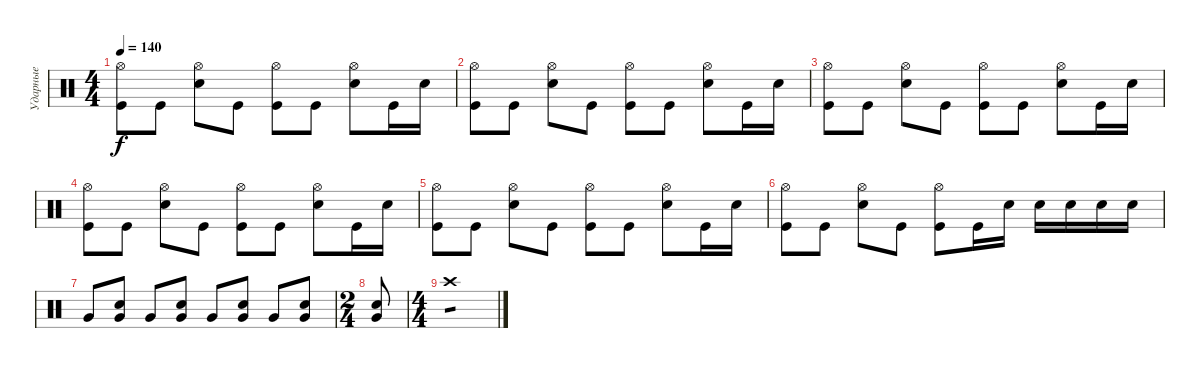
\track ("Ударные" "Ударные") {instrument percussion}
\staff {score}
\articulation defaults
\ts (4 4)
\tempo 140
\clef neutral
\ks c
("Hi-Hat (open)" "Kick (hit)").8{dy f} "Kick (hit)".8 ("Hi-Hat (open)" "Snare (hit) 2").8 "Kick (hit)".8 ("Hi-Hat (open)" "Kick (hit)").8 "Kick (hit)".8 ("Hi-Hat (open)" "Snare (hit) 2").8 "Kick (hit)".16 "Snare (hit) 2".16 |
("Hi-Hat (open)" "Kick (hit)").8 "Kick (hit)".8 ("Hi-Hat (open)" "Snare (hit) 2").8 "Kick (hit)".8 ("Hi-Hat (open)" "Kick (hit)").8 "Kick (hit)".8 ("Hi-Hat (open)" "Snare (hit) 2").8 "Kick (hit)".16 "Snare (hit) 2".16 |
("Hi-Hat (open)" "Kick (hit)").8 "Kick (hit)".8 ("Hi-Hat (open)" "Snare (hit) 2").8 "Kick (hit)".8 ("Hi-Hat (open)" "Kick (hit)").8 "Kick (hit)".8 ("Hi-Hat (open)" "Snare (hit) 2").8 "Kick (hit)".16 "Snare (hit) 2".16 |
("Hi-Hat (open)" "Kick (hit)").8 "Kick (hit)".8 ("Hi-Hat (open)" "Snare (hit) 2").8 "Kick (hit)".8 ("Hi-Hat (open)" "Kick (hit)").8 "Kick (hit)".8 ("Hi-Hat (open)" "Snare (hit) 2").8 "Kick (hit)".16 "Snare (hit) 2".16 |
("Hi-Hat (open)" "Kick (hit)").8 "Kick (hit)".8 ("Hi-Hat (open)" "Snare (hit) 2").8 "Kick (hit)".8 ("Hi-Hat (open)" "Kick (hit)").8 "Kick (hit)".8 ("Hi-Hat (open)" "Snare (hit) 2").8 "Kick (hit)".16 "Snare (hit) 2".16 |
("Hi-Hat (open)" "Kick (hit)").8 "Kick (hit)".8 ("Hi-Hat (open)" "Snare (hit) 2").8 "Kick (hit)".8 ("Hi-Hat (open)" "Kick (hit)").8 "Kick (hit)".16 "Snare (hit) 2".16 "Snare (hit) 2".16 "Snare (hit) 2".16 "Snare (hit) 2".16 "Snare (hit) 2".16 |
"Very Low Tom (hit)".8 ("Snare (hit) 2" "Very Low Tom (hit)").8 "Very Low Tom (hit)".8 ("Snare (hit) 2" "Very Low Tom (hit)").8 "Very Low Tom (hit)".8 ("Snare (hit) 2" "Very Low Tom (hit)").8 "Very Low Tom (hit)".8 ("Snare (hit) 2" "Very Low Tom (hit)").8 |
\ts (2 4)
("Snare (hit) 2" "Very Low Tom (hit)").8 |
\ts (4 4)
"Crash high (hit)".1{tp 1}
